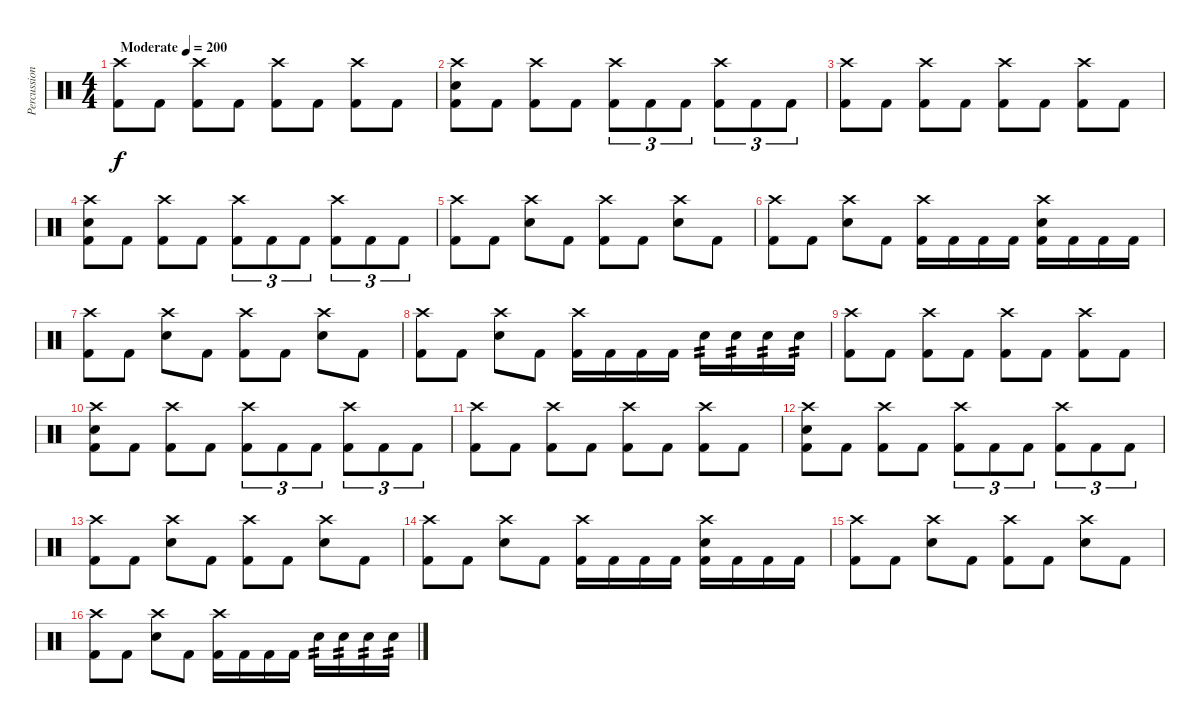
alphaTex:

\track ("Percussion" "Percussion") {instrument percussion}
\staff {score}
\articulation defaults
\ts (4 4)
\tempo (200 "Moderate")
\clef neutral
\ks c
("Crash high (hit)" "Kick (hit) 2").8{dy f} "Kick (hit) 2".8 ("Crash high (hit)" "Kick (hit) 2").8 "Kick (hit) 2".8 ("Crash high (hit)" "Kick (hit) 2").8 "Kick (hit) 2".8 ("Crash high (hit)" "Kick (hit) 2").8 "Kick (hit) 2".8 |
("Crash high (hit)" "Electric Snare (hit)" "Kick (hit) 2").8 "Kick (hit) 2".8 ("Crash high (hit)" "Kick (hit) 2").8 "Kick (hit) 2".8 ("Crash high (hit)" "Kick (hit) 2").8{tu (3 2)} "Kick (hit) 2".8{tu (3 2)} "Kick (hit) 2".8{tu (3 2)} ("Crash high (hit)" "Kick (hit) 2").8{tu (3 2)} "Kick (hit) 2".8{tu (3 2)} "Kick (hit) 2".8{tu (3 2)} |
("Crash high (hit)" "Kick (hit) 2").8 "Kick (hit) 2".8 ("Crash high (hit)" "Kick (hit) 2").8 "Kick (hit) 2".8 ("Crash high (hit)" "Kick (hit) 2").8 "Kick (hit) 2".8 ("Crash high (hit)" "Kick (hit) 2").8 "Kick (hit) 2".8 |
("Crash high (hit)" "Electric Snare (hit)" "Kick (hit) 2").8 "Kick (hit) 2".8 ("Crash high (hit)" "Kick (hit) 2").8 "Kick (hit) 2".8 ("Crash high (hit)" "Kick (hit) 2").8{tu (3 2)} "Kick (hit) 2".8{tu (3 2)} "Kick (hit) 2".8{tu (3 2)} ("Crash high (hit)" "Kick (hit) 2").8{tu (3 2)} "Kick (hit) 2".8{tu (3 2)} "Kick (hit) 2".8{tu (3 2)} |
("Crash high (hit)" "Kick (hit) 2").8 "Kick (hit) 2".8 ("Crash high (hit)" "Electric Snare (hit)").8 "Kick (hit) 2".8 ("Crash high (hit)" "Kick (hit) 2").8 "Kick (hit) 2".8 ("Crash high (hit)" "Electric Snare (hit)").8 "Kick (hit) 2".8 |
("Crash high (hit)" "Kick (hit) 2").8 "Kick (hit) 2".8 ("Crash high (hit)" "Electric Snare (hit)").8 "Kick (hit) 2".8 ("Crash high (hit)" "Kick (hit) 2").16 "Kick (hit) 2".16 "Kick (hit) 2".16 "Kick (hit) 2".16 ("Crash high (hit)" "Electric Snare (hit)" "Kick (hit) 2").16 "Kick (hit) 2".16 "Kick (hit) 2".16 "Kick (hit) 2".16 |
("Crash high (hit)" "Kick (hit) 2").8 "Kick (hit) 2".8 ("Crash high (hit)" "Electric Snare (hit)").8 "Kick (hit) 2".8 ("Crash high (hit)" "Kick (hit) 2").8 "Kick (hit) 2".8 ("Crash high (hit)" "Electric Snare (hit)").8 "Kick (hit) 2".8 |
("Crash high (hit)" "Kick (hit) 2").8 "Kick (hit) 2".8 ("Crash high (hit)" "Electric Snare (hit)").8 "Kick (hit) 2".8 ("Crash high (hit)" "Kick (hit) 2").16 "Kick (hit) 2".16 "Kick (hit) 2".16 "Kick (hit) 2".16 "Electric Snare (hit)".16{tp 2} "Electric Snare (hit)".16{tp 2} "Electric Snare (hit)".16{tp 2} "Electric Snare (hit)".16{tp 2} |
("Crash high (hit)" "Kick (hit) 2").8 "Kick (hit) 2".8 ("Crash high (hit)" "Kick (hit) 2").8 "Kick (hit) 2".8 ("Crash high (hit)" "Kick (hit) 2").8 "Kick (hit) 2".8 ("Crash high (hit)" "Kick (hit) 2").8 "Kick (hit) 2".8 |
("Crash high (hit)" "Electric Snare (hit)" "Kick (hit) 2").8 "Kick (hit) 2".8 ("Crash high (hit)" "Kick (hit) 2").8 "Kick (hit) 2".8 ("Crash high (hit)" "Kick (hit) 2").8{tu (3 2)} "Kick (hit) 2".8{tu (3 2)} "Kick (hit) 2".8{tu (3 2)} ("Crash high (hit)" "Kick (hit) 2").8{tu (3 2)} "Kick (hit) 2".8{tu (3 2)} "Kick (hit) 2".8{tu (3 2)} |
("Crash high (hit)" "Kick (hit) 2").8 "Kick (hit) 2".8 ("Crash high (hit)" "Kick (hit) 2").8 "Kick (hit) 2".8 ("Crash high (hit)" "Kick (hit) 2").8 "Kick (hit) 2".8 ("Crash high (hit)" "Kick (hit) 2").8 "Kick (hit) 2".8 |
("Crash high (hit)" "Electric Snare (hit)" "Kick (hit) 2").8 "Kick (hit) 2".8 ("Crash high (hit)" "Kick (hit) 2").8 "Kick (hit) 2".8 ("Crash high (hit)" "Kick (hit) 2").8{tu (3 2)} "Kick (hit) 2".8{tu (3 2)} "Kick (hit) 2".8{tu (3 2)} ("Crash high (hit)" "Kick (hit) 2").8{tu (3 2)} "Kick (hit) 2".8{tu (3 2)} "Kick (hit) 2".8{tu (3 2)} |
("Crash high (hit)" "Kick (hit) 2").8 "Kick (hit) 2".8 ("Crash high (hit)" "Electric Snare (hit)").8 "Kick (hit) 2".8 ("Crash high (hit)" "Kick (hit) 2").8 "Kick (hit) 2".8 ("Crash high (hit)" "Electric Snare (hit)").8 "Kick (hit) 2".8 |
("Crash high (hit)" "Kick (hit) 2").8 "Kick (hit) 2".8 ("Crash high (hit)" "Electric Snare (hit)").8 "Kick (hit) 2".8 ("Crash high (hit)" "Kick (hit) 2").16 "Kick (hit) 2".16 "Kick (hit) 2".16 "Kick (hit) 2".16 ("Crash high (hit)" "Electric Snare (hit)" "Kick (hit) 2").16 "Kick (hit) 2".16 "Kick (hit) 2".16 "Kick (hit) 2".16 |
("Crash high (hit)" "Kick (hit) 2").8 "Kick (hit) 2".8 ("Crash high (hit)" "Electric Snare (hit)").8 "Kick (hit) 2".8 ("Crash high (hit)" "Kick (hit) 2").8 "Kick (hit) 2".8 ("Crash high (hit)" "Electric Snare (hit)").8 "Kick (hit) 2".8 |
("Crash high (hit)" "Kick (hit) 2").8 "Kick (hit) 2".8 ("Crash high (hit)" "Electric Snare (hit)").8 "Kick (hit) 2".8 ("Crash high (hit)" "Kick (hit) 2").16 "Kick (hit) 2".16 "Kick (hit) 2".16 "Kick (hit) 2".16 "Electric Snare (hit)".16{tp 2} "Electric Snare (hit)".16{tp 2} "Electric Snare (hit)".16{tp 2} "Electric Snare (hit)".16{tp 2}
